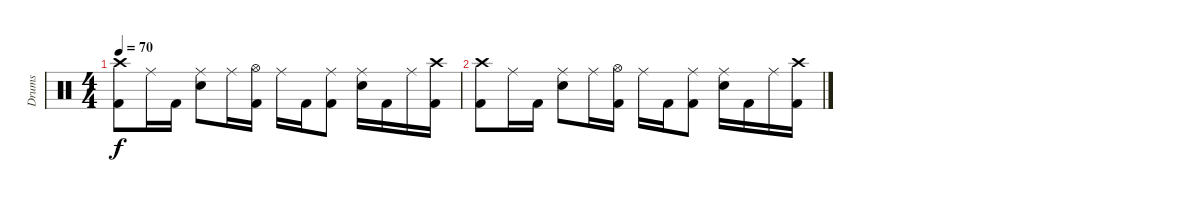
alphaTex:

\track ("Drums" "Drums") {instrument percussion}
\staff {score}
\articulation defaults
\ts (4 4)
\tempo 70
\clef neutral
\ks c
("Crash high (hit)" "Kick (hit) 2").8{dy f} "Ride (middle)".16 "Kick (hit) 2".16 ("Ride (middle)" "Electric Snare (hit)").8 "Ride (middle)".16 ("Hi-Hat (open)" "Kick (hit) 2").16 "Ride (middle)".16 "Kick (hit) 2".16 ("Ride (middle)" "Kick (hit) 2").8 ("Ride (middle)" "Electric Snare (hit)").16 "Kick (hit) 2".16 "Ride (middle)".16 ("Crash high (hit)" "Kick (hit) 2").16 |
("Crash high (hit)" "Kick (hit) 2").8 "Ride (middle)".16 "Kick (hit) 2".16 ("Ride (middle)" "Electric Snare (hit)").8 "Ride (middle)".16 ("Hi-Hat (open)" "Kick (hit) 2").16 "Ride (middle)".16 "Kick (hit) 2".16 ("Ride (middle)" "Kick (hit) 2").8 ("Ride (middle)" "Electric Snare (hit)").16 "Kick (hit) 2".16 "Ride (middle)".16 ("Crash high (hit)" "Kick (hit) 2").16
